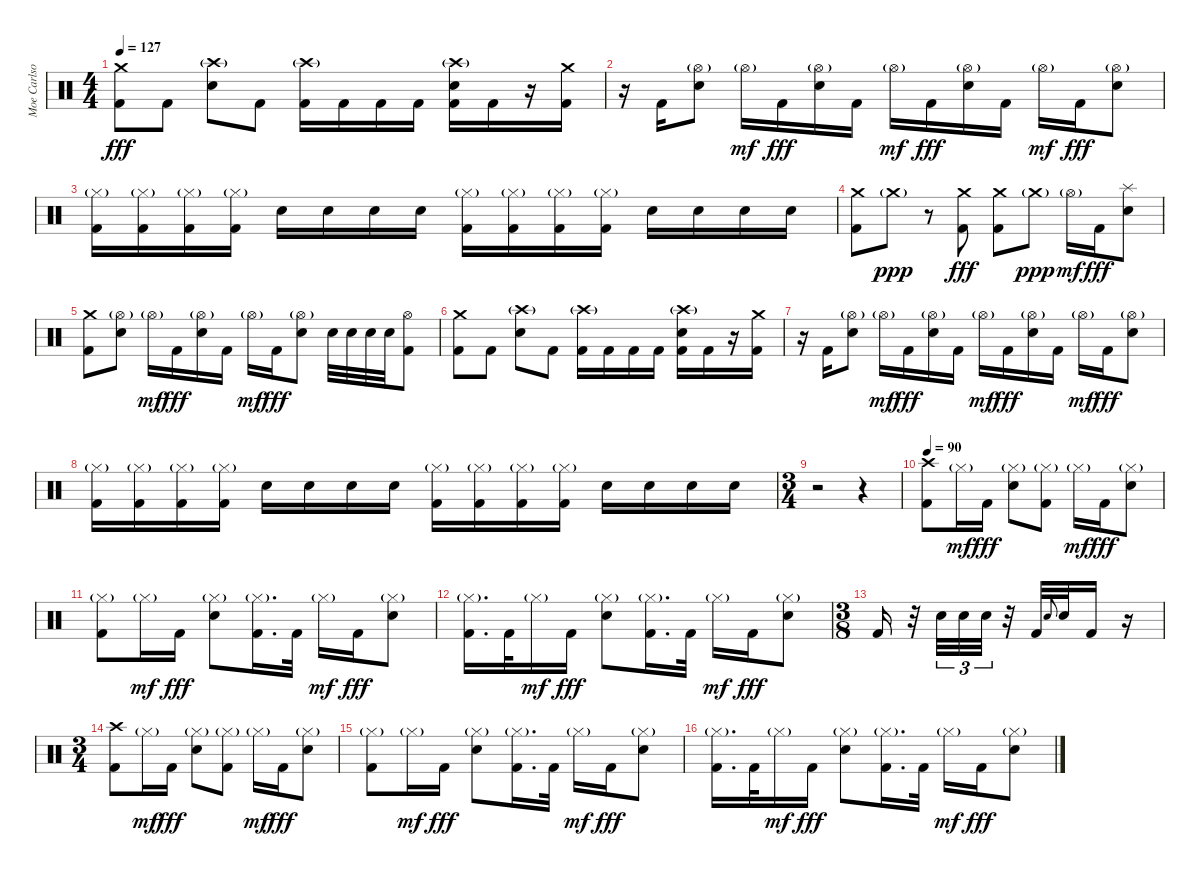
\track ("Moe Carlson" "Moe Carlso") {instrument percussion}
\staff {score}
\articulation defaults
\ts (4 4)
\tempo 127
\clef neutral
\ks c
("Crash medium (hit)" "Kick (hit) 2").8{dy fff} "Kick (hit) 2".8 ("Crash high (hit)"{g} "Electric Snare (hit)").8 "Kick (hit) 2".8 ("Crash high (hit)"{g} "Kick (hit) 2").16 "Kick (hit) 2".16 "Kick (hit) 2".16 "Kick (hit) 2".16 ("Crash high (hit)"{g} "Electric Snare (hit)" "Kick (hit) 2").16 "Kick (hit) 2".16 r.16 ("Crash medium (hit)" "Kick (hit) 2").16 |
r.16 "Kick (hit) 2".16 ("Hi-Hat (open)"{g} "Electric Snare (hit)").8 "Hi-Hat (open)"{g}.16{dy mf} "Kick (hit) 2".16{dy fff} ("Hi-Hat (open)"{g} "Electric Snare (hit)").16 "Kick (hit) 2".16 "Hi-Hat (open)"{g}.16{dy mf} "Kick (hit) 2".16{dy fff} ("Hi-Hat (open)"{g} "Electric Snare (hit)").16 "Kick (hit) 2".16 "Hi-Hat (open)"{g}.16{dy mf} "Kick (hit) 2".16{dy fff} ("Hi-Hat (open)"{g} "Electric Snare (hit)").8 |
("Hi-Hat (closed)"{g} "Kick (hit) 2").16 ("Hi-Hat (closed)"{g} "Kick (hit) 2").16 ("Hi-Hat (closed)"{g} "Kick (hit) 2").16 ("Hi-Hat (closed)"{g} "Kick (hit) 2").16 "Electric Snare (hit)".16 "Electric Snare (hit)".16 "Electric Snare (hit)".16 "Electric Snare (hit)".16 ("Hi-Hat (closed)"{g} "Kick (hit) 2").16 ("Hi-Hat (closed)"{g} "Kick (hit) 2").16 ("Hi-Hat (closed)"{g} "Kick (hit) 2").16 ("Hi-Hat (closed)"{g} "Kick (hit) 2").16 "Electric Snare (hit)".16 "Electric Snare (hit)".16 "Electric Snare (hit)".16 "Electric Snare (hit)".16 |
("Crash medium (hit)" "Kick (hit) 2").8 "Crash medium (hit)"{g}.8{dy ppp} r.8 ("Crash medium (hit)" "Kick (hit) 2").8{dy fff} ("Crash medium (hit)" "Kick (hit) 2").8 "Crash medium (hit)"{g}.8{dy ppp} "Hi-Hat (open)"{g}.16{dy mf} "Kick (hit) 2".16{dy fff} ("Splash (hit)" "Electric Snare (hit)").8 |
("Crash medium (hit)" "Kick (hit) 2").8 ("Hi-Hat (open)"{g} "Electric Snare (hit)").8 "Hi-Hat (open)"{g}.16{dy mf} "Kick (hit) 2".16{dy fff} ("Hi-Hat (open)"{g} "Electric Snare (hit)").16 "Kick (hit) 2".16 "Hi-Hat (open)"{g}.16{dy mf} "Kick (hit) 2".16{dy fff} ("Hi-Hat (open)"{g} "Electric Snare (hit)").8 "Electric Snare (hit)".32 "Electric Snare (hit)".32 "Electric Snare (hit)".32 "Electric Snare (hit)".32 ("Hi-Hat (open)" "Kick (hit) 2").8 |
("Crash medium (hit)" "Kick (hit) 2").8 "Kick (hit) 2".8 ("Crash high (hit)"{g} "Electric Snare (hit)").8 "Kick (hit) 2".8 ("Crash high (hit)"{g} "Kick (hit) 2").16 "Kick (hit) 2".16 "Kick (hit) 2".16 "Kick (hit) 2".16 ("Crash high (hit)"{g} "Electric Snare (hit)" "Kick (hit) 2").16 "Kick (hit) 2".16 r.16 ("Crash medium (hit)" "Kick (hit) 2").16 |
r.16 "Kick (hit) 2".16 ("Hi-Hat (open)"{g} "Electric Snare (hit)").8 "Hi-Hat (open)"{g}.16{dy mf} "Kick (hit) 2".16{dy fff} ("Hi-Hat (open)"{g} "Electric Snare (hit)").16 "Kick (hit) 2".16 "Hi-Hat (open)"{g}.16{dy mf} "Kick (hit) 2".16{dy fff} ("Hi-Hat (open)"{g} "Electric Snare (hit)").16 "Kick (hit) 2".16 "Hi-Hat (open)"{g}.16{dy mf} "Kick (hit) 2".16{dy fff} ("Hi-Hat (open)"{g} "Electric Snare (hit)").8 |
("Hi-Hat (closed)"{g} "Kick (hit) 2").16 ("Hi-Hat (closed)"{g} "Kick (hit) 2").16 ("Hi-Hat (closed)"{g} "Kick (hit) 2").16 ("Hi-Hat (closed)"{g} "Kick (hit) 2").16 "Electric Snare (hit)".16 "Electric Snare (hit)".16 "Electric Snare (hit)".16 "Electric Snare (hit)".16 ("Hi-Hat (closed)"{g} "Kick (hit) 2").16 ("Hi-Hat (closed)"{g} "Kick (hit) 2").16 ("Hi-Hat (closed)"{g} "Kick (hit) 2").16 ("Hi-Hat (closed)"{g} "Kick (hit) 2").16 "Electric Snare (hit)".16 "Electric Snare (hit)".16 "Electric Snare (hit)".16 "Electric Snare (hit)".16 |
\ts (3 4)
r.2 r.4 |
\tempo 90
("Crash high (hit)" "Kick (hit) 2").8 "Hi-Hat (closed)"{g}.16{dy mf} "Kick (hit) 2".16{dy fff} ("Hi-Hat (closed)"{g} "Electric Snare (hit)").8 ("Hi-Hat (closed)"{g} "Kick (hit) 2").8 "Hi-Hat (closed)"{g}.16{dy mf} "Kick (hit) 2".16{dy fff} ("Hi-Hat (closed)"{g} "Electric Snare (hit)").8 |
("Hi-Hat (closed)"{g} "Kick (hit) 2").8 "Hi-Hat (closed)"{g}.16{dy mf} "Kick (hit) 2".16{dy fff} ("Hi-Hat (closed)"{g} "Electric Snare (hit)").8 ("Hi-Hat (closed)"{g} "Kick (hit) 2").16{d} "Kick (hit) 2".32 "Hi-Hat (closed)"{g}.16{dy mf} "Kick (hit) 2".16{dy fff} ("Hi-Hat (closed)"{g} "Electric Snare (hit)").8 |
("Hi-Hat (closed)"{g} "Kick (hit) 2").16{d} "Kick (hit) 2".32 "Hi-Hat (closed)"{g}.16{dy mf} "Kick (hit) 2".16{dy fff} ("Hi-Hat (closed)"{g} "Electric Snare (hit)").8 ("Hi-Hat (closed)"{g} "Kick (hit) 2").16{d} "Kick (hit) 2".32 "Hi-Hat (closed)"{g}.16{dy mf} "Kick (hit) 2".16{dy fff} ("Hi-Hat (closed)"{g} "Electric Snare (hit)").8 |
\ts (3 8)
"Kick (hit) 2".16 r.32 "Electric Snare (hit)".32{tu (3 2)} "Electric Snare (hit)".32{tu (3 2)} "Electric Snare (hit)".32{tu (3 2)} r.32 "Kick (hit) 2".32 "Electric Snare (hit)".8{gr onbeat} "Electric Snare (hit)".32 "Kick (hit) 2".16 r.16 |
\ts (3 4)
("Crash high (hit)" "Kick (hit) 2").8 "Hi-Hat (closed)"{g}.16{dy mf} "Kick (hit) 2".16{dy fff} ("Hi-Hat (closed)"{g} "Electric Snare (hit)").8 ("Hi-Hat (closed)"{g} "Kick (hit) 2").8 "Hi-Hat (closed)"{g}.16{dy mf} "Kick (hit) 2".16{dy fff} ("Hi-Hat (closed)"{g} "Electric Snare (hit)").8 |
("Hi-Hat (closed)"{g} "Kick (hit) 2").8 "Hi-Hat (closed)"{g}.16{dy mf} "Kick (hit) 2".16{dy fff} ("Hi-Hat (closed)"{g} "Electric Snare (hit)").8 ("Hi-Hat (closed)"{g} "Kick (hit) 2").16{d} "Kick (hit) 2".32 "Hi-Hat (closed)"{g}.16{dy mf} "Kick (hit) 2".16{dy fff} ("Hi-Hat (closed)"{g} "Electric Snare (hit)").8 |
("Hi-Hat (closed)"{g} "Kick (hit) 2").16{d} "Kick (hit) 2".32 "Hi-Hat (closed)"{g}.16{dy mf} "Kick (hit) 2".16{dy fff} ("Hi-Hat (closed)"{g} "Electric Snare (hit)").8 ("Hi-Hat (closed)"{g} "Kick (hit) 2").16{d} "Kick (hit) 2".32 "Hi-Hat (closed)"{g}.16{dy mf} "Kick (hit) 2".16{dy fff} ("Hi-Hat (closed)"{g} "Electric Snare (hit)").8
